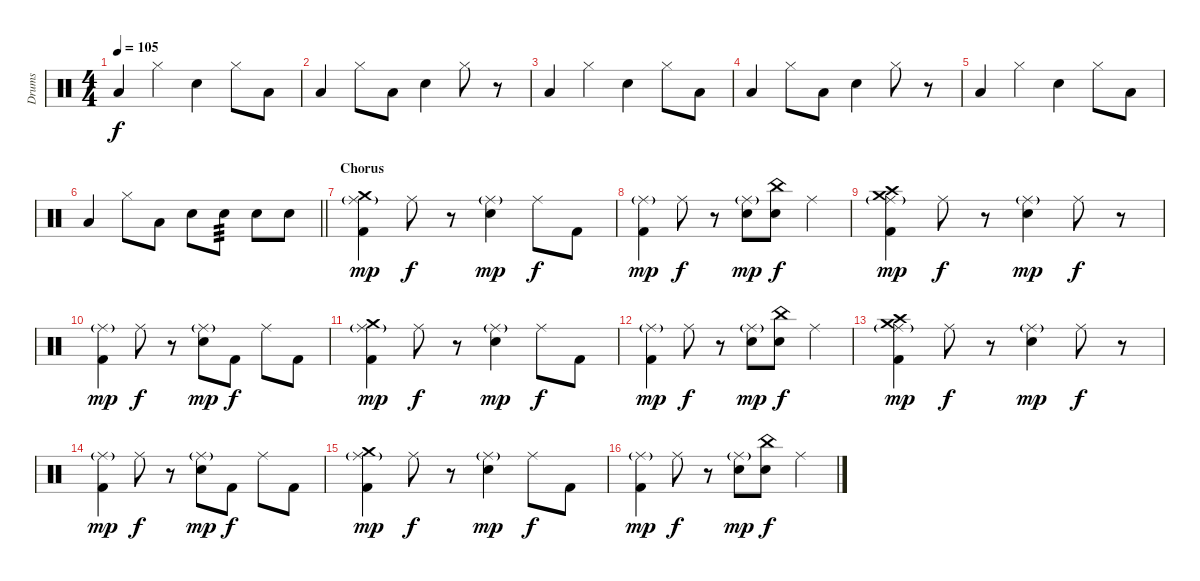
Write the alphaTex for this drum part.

\track ("Drums" "Drums") {instrument percussion}
\staff {score}
\articulation defaults
\ts (4 4)
\tempo 105
\clef neutral
\ks c "Low Tom (hit)".4{dy f} "Hi-Hat (closed)".4 "Snare (hit) 2".4 "Hi-Hat (closed)".8 "Low Tom (hit)".8
|
"Low Tom (hit)".4 "Hi-Hat (closed)".8 "Low Tom (hit)".8 "Snare (hit) 2".4 "Hi-Hat (closed)".8 r.8 |
"Low Tom (hit)".4 "Hi-Hat (closed)".4 "Snare (hit) 2".4 "Hi-Hat (closed)".8 "Low Tom (hit)".8 |
"Low Tom (hit)".4 "Hi-Hat (closed)".8 "Low Tom (hit)".8 "Snare (hit) 2".4 "Hi-Hat (closed)".8 r.8 |
"Low Tom (hit)".4 "Hi-Hat (closed)".4 "Snare (hit) 2".4 "Hi-Hat (closed)".8 "Low Tom (hit)".8 |
\barLineRight lightlight "Low Tom (hit)".4 "Hi-Hat (closed)".8 "Low Tom (hit)".8 "Snare (hit) 2".8 "Snare (hit) 2".8{tp 3} "Snare (hit) 2".8 "Snare (hit) 2".8
|
\section ("" "Chorus")
("Ride (middle)"{g} "Crash medium (hit)" "Kick (hit) 2").4{dy mp volume 12} "Ride (middle)".8{dy f} r.8 ("Ride (middle)"{g} "Electric Snare (hit)").4{dy mp} "Ride (middle)".8{dy f} "Kick (hit) 2".8 |
("Ride (middle)"{g} "Kick (hit) 2").4{dy mp} "Ride (middle)".8{dy f} r.8 ("Ride (middle)"{g} "Electric Snare (hit)").8{dy mp} ("China (hit)" "Electric Snare (hit)").8{dy f} "Ride (middle)".4 |
("Ride (middle)"{g} "Crash medium (hit)" "Crash high (hit)" "Kick (hit) 2").4{dy mp} "Ride (middle)".8{dy f} r.8 ("Ride (middle)"{g} "Electric Snare (hit)").4{dy mp} "Ride (middle)".8{dy f} r.8 |
("Ride (middle)"{g} "Kick (hit) 2").4{dy mp} "Ride (middle)".8{dy f} r.8 ("Ride (middle)"{g} "Electric Snare (hit)").8{dy mp} "Kick (hit) 2".8{dy f} "Ride (middle)".8 "Kick (hit) 2".8 |
("Ride (middle)"{g} "Crash medium (hit)" "Kick (hit) 2").4{dy mp volume 12} "Ride (middle)".8{dy f} r.8 ("Ride (middle)"{g} "Electric Snare (hit)").4{dy mp} "Ride (middle)".8{dy f} "Kick (hit) 2".8 |
("Ride (middle)"{g} "Kick (hit) 2").4{dy mp} "Ride (middle)".8{dy f} r.8 ("Ride (middle)"{g} "Electric Snare (hit)").8{dy mp} ("China (hit)" "Electric Snare (hit)").8{dy f} "Ride (middle)".4 |
("Ride (middle)"{g} "Crash medium (hit)" "Crash high (hit)" "Kick (hit) 2").4{dy mp} "Ride (middle)".8{dy f} r.8 ("Ride (middle)"{g} "Electric Snare (hit)").4{dy mp} "Ride (middle)".8{dy f} r.8 |
("Ride (middle)"{g} "Kick (hit) 2").4{dy mp} "Ride (middle)".8{dy f} r.8 ("Ride (middle)"{g} "Electric Snare (hit)").8{dy mp} "Kick (hit) 2".8{dy f} "Ride (middle)".8 "Kick (hit) 2".8 |
("Ride (middle)"{g} "Crash medium (hit)" "Kick (hit) 2").4{dy mp volume 12} "Ride (middle)".8{dy f} r.8 ("Ride (middle)"{g} "Electric Snare (hit)").4{dy mp} "Ride (middle)".8{dy f} "Kick (hit) 2".8 |
("Ride (middle)"{g} "Kick (hit) 2").4{dy mp} "Ride (middle)".8{dy f} r.8 ("Ride (middle)"{g} "Electric Snare (hit)").8{dy mp} ("China (hit)" "Electric Snare (hit)").8{dy f} "Ride (middle)".4
